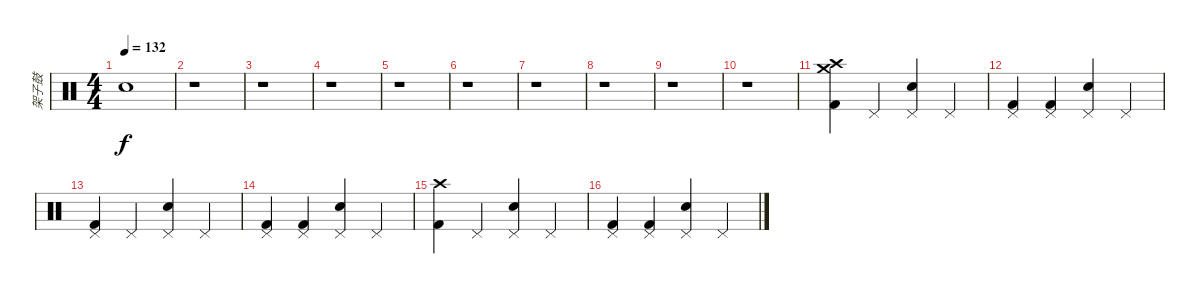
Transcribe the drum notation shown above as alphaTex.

\track ("架子鼓" "架子鼓") {instrument percussion}
\staff {score}
\articulation defaults
\ts (4 4)
\tempo 132
\clef neutral
\ks c "Snare (hit)"{t}.1{dy f}
|
r.1 |
r.1 |
r.1 |
r.1 |
r.1 |
r.1 |
r.1 |
r.1 |
r.1 |
("Crash medium (hit)" "Crash high (hit)" "Kick (hit) 2").4 "Pedal Hi-Hat (hit)".4 ("Pedal Hi-Hat (hit)" "Electric Snare (hit)").4 "Pedal Hi-Hat (hit)".4 |
("Pedal Hi-Hat (hit)" "Kick (hit) 2").4 ("Pedal Hi-Hat (hit)" "Kick (hit) 2").4 ("Pedal Hi-Hat (hit)" "Electric Snare (hit)").4 "Pedal Hi-Hat (hit)".4 |
("Pedal Hi-Hat (hit)" "Kick (hit) 2").4 "Pedal Hi-Hat (hit)".4 ("Pedal Hi-Hat (hit)" "Electric Snare (hit)").4 "Pedal Hi-Hat (hit)".4 |
("Pedal Hi-Hat (hit)" "Kick (hit) 2").4 ("Pedal Hi-Hat (hit)" "Kick (hit) 2").4 ("Pedal Hi-Hat (hit)" "Electric Snare (hit)").4 "Pedal Hi-Hat (hit)".4 |
("Crash high (hit)" "Kick (hit) 2").4 "Pedal Hi-Hat (hit)".4 ("Pedal Hi-Hat (hit)" "Electric Snare (hit)").4 "Pedal Hi-Hat (hit)".4 |
("Pedal Hi-Hat (hit)" "Kick (hit) 2").4 ("Pedal Hi-Hat (hit)" "Kick (hit) 2").4 ("Pedal Hi-Hat (hit)" "Electric Snare (hit)").4 "Pedal Hi-Hat (hit)".4
